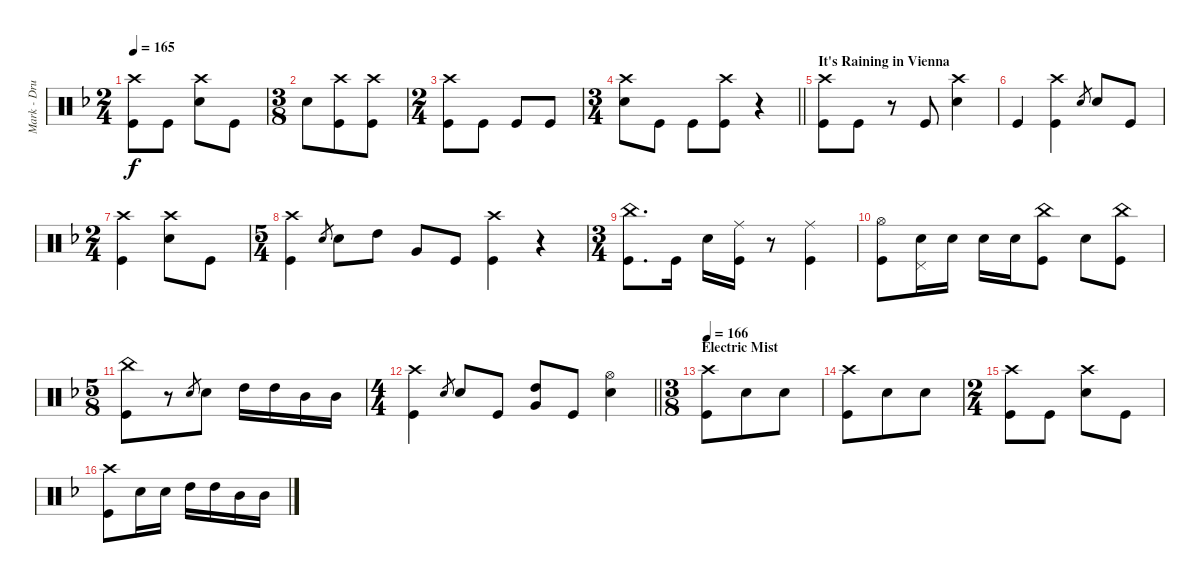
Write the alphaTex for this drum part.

\track ("Mark - Drums" "Mark - Dru") {instrument percussion}
\staff {score}
\articulation defaults
\ts (2 4)
\tempo 165
\clef neutral
\ks dminor
("Kick (hit)" "Crash high (hit)").8{dy f} "Kick (hit)".8 ("Snare (hit) 2" "Crash high (hit)").8 "Kick (hit)".8 |
\ts (3 8)
"Snare (hit) 2".8 ("Kick (hit)" "Crash high (hit)").8 ("Kick (hit)" "Crash high (hit)").8 |
\ts (2 4)
("Kick (hit)" "Crash high (hit)").8 "Kick (hit)".8 "Kick (hit)".8 "Kick (hit)".8 |
\ts (3 4)
\barLineRight lightlight
("Snare (hit) 2" "Crash high (hit)").8 "Kick (hit)".8 "Kick (hit)".8 ("Kick (hit)" "Crash high (hit)").8 r.4 |
\section ("" "It's Raining in Vienna")
("Kick (hit)" "Crash high (hit)").8 "Kick (hit)".8 r.8 "Kick (hit)".8 ("Snare (hit) 2" "Crash high (hit)").4 |
"Kick (hit)".4 ("Kick (hit)" "Crash high (hit)").4 "Snare (hit) 2".8{gr} "Snare (hit) 2".8 "Kick (hit)".8 |
\ts (2 4)
("Kick (hit)" "Crash high (hit)").4 ("Snare (hit) 2" "Crash high (hit)").8 "Kick (hit)".8 |
\ts (5 4)
("Kick (hit)" "Crash high (hit)").4 "Snare (hit) 2".8{gr} "Snare (hit) 2".8 "High Tom (hit)".8 "Very Low Tom (hit)".8 "Kick (hit)".8 ("Kick (hit)" "Crash high (hit)").4 r.4 |
\ts (3 4)
("Kick (hit)" "China (hit)").8{d} "Kick (hit)".16 "Snare (hit) 2".16 ("Kick (hit)" "Ride (middle)").16 r.8 ("Kick (hit)" "Ride (middle)").4 |
("Kick (hit)" "Hi-Hat (open)").8 ("Snare (hit) 2" "Pedal Hi-Hat (hit)").16 "Snare (hit) 2".16 "Snare (hit) 2".16 "Snare (hit) 2".16 ("Kick (hit)" "China (hit)").8 "Snare (hit) 2".8 ("Kick (hit)" "China (hit)").8 |
\ts (5 8)
("Kick (hit)" "China (hit)").8 r.8 "Snare (hit) 2".8{gr} "Snare (hit) 2".8 "High Tom (hit)".16 "High Tom (hit)".16 "Mid Tom (hit)".16 "Mid Tom (hit)".16 |
\ts (4 4)
\barLineRight lightlight
("Kick (hit)" "Crash high (hit)").4 "Snare (hit) 2".8{gr} "Snare (hit) 2".8 "Kick (hit)".8 ("High Tom (hit)" "Very Low Tom (hit)").8 "Kick (hit)".8 ("Snare (hit) 2" "Hi-Hat (open)").4 |
\ts (3 8)
\section ("" "Electric Mist")
\tempo 166
("Kick (hit)" "Crash high (hit)").8 "Snare (hit) 2".8 "Snare (hit) 2".8 |
("Crash high (hit)" "Kick (hit)").8 "Snare (hit) 2".8 "Snare (hit) 2".8 |
\ts (2 4)
("Kick (hit)" "Crash high (hit)").8 "Kick (hit)".8 ("Snare (hit) 2" "Crash high (hit)").8 "Kick (hit)".8 |
("Kick (hit)" "Crash high (hit)").8 "Snare (hit) 2".16 "Snare (hit) 2".16 "High Tom (hit)".16 "High Tom (hit)".16 "Mid Tom (hit)".16 "Mid Tom (hit)".16
